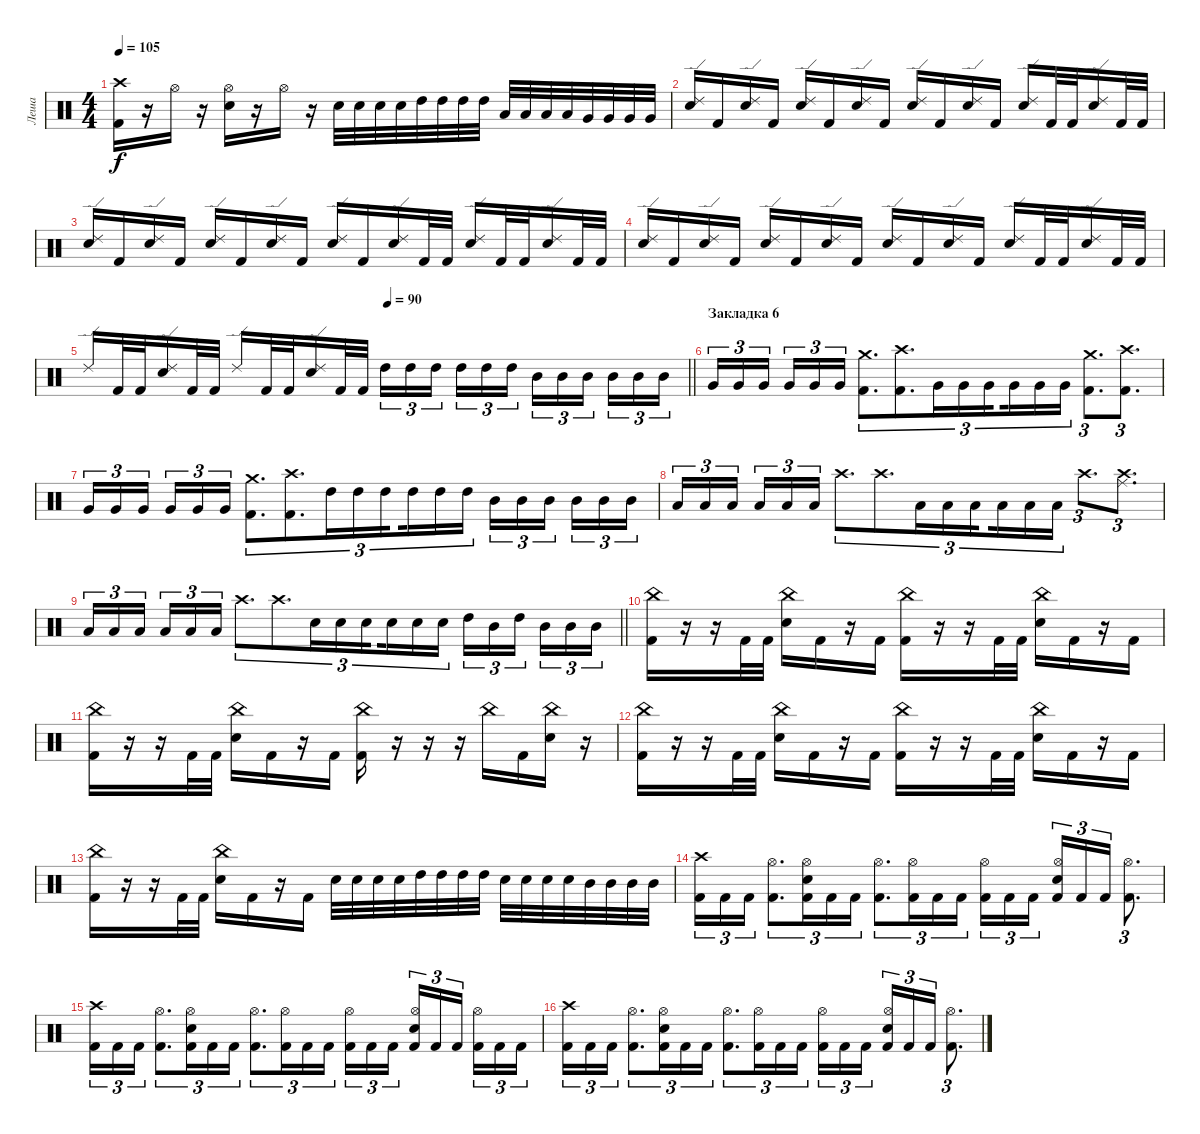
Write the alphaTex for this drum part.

\track ("Леша" "Леша") {instrument percussion}
\staff {score}
\articulation defaults
\ts (4 4)
\tempo 105
\clef neutral
\ks c
("Crash high (hit)" "Kick (hit) 2").16{dy f} r.16 "Hi-Hat (open)".16 r.16 ("Hi-Hat (open)" "Electric Snare (hit)").16 r.16 "Hi-Hat (open)".16 r.16 "Electric Snare (hit)".32 "Electric Snare (hit)".32 "Electric Snare (hit)".32 "Electric Snare (hit)".32 "High Tom (hit)".32 "High Tom (hit)".32 "High Tom (hit)".32 "High Tom (hit)".32 "Low Tom (hit)".32 "Low Tom (hit)".32 "Low Tom (hit)".32 "Low Tom (hit)".32 "Very Low Tom (hit)".32 "Very Low Tom (hit)".32 "Very Low Tom (hit)".32 "Very Low Tom (hit)".32 |
("Ride (edge) 2" "Electric Snare (hit)").16 "Kick (hit) 2".16 ("Ride (edge) 2" "Electric Snare (hit)").16 "Kick (hit) 2".16 ("Ride (edge) 2" "Electric Snare (hit)").16 "Kick (hit) 2".16 ("Ride (edge) 2" "Electric Snare (hit)").16 "Kick (hit) 2".16 ("Ride (edge) 2" "Electric Snare (hit)").16 "Kick (hit) 2".16 ("Ride (edge) 2" "Electric Snare (hit)").16 "Kick (hit) 2".16 ("Ride (edge) 2" "Electric Snare (hit)").16 "Kick (hit) 2".32 "Kick (hit) 2".32 ("Ride (edge) 2" "Electric Snare (hit)").16 "Kick (hit) 2".32 "Kick (hit) 2".32 |
("Ride (edge) 2" "Electric Snare (hit)").16 "Kick (hit) 2".16 ("Ride (edge) 2" "Electric Snare (hit)").16 "Kick (hit) 2".16 ("Ride (edge) 2" "Electric Snare (hit)").16 "Kick (hit) 2".16 ("Ride (edge) 2" "Electric Snare (hit)").16 "Kick (hit) 2".16 ("Ride (edge) 2" "Electric Snare (hit)").16 "Kick (hit) 2".16 ("Ride (edge) 2" "Electric Snare (hit)").16 "Kick (hit) 2".32 "Kick (hit) 2".32 ("Ride (edge) 2" "Electric Snare (hit)").16 "Kick (hit) 2".32 "Kick (hit) 2".32 ("Ride (edge) 2" "Electric Snare (hit)").16 "Kick (hit) 2".32 "Kick (hit) 2".32 |
("Ride (edge) 2" "Electric Snare (hit)").16 "Kick (hit) 2".16 ("Ride (edge) 2" "Electric Snare (hit)").16 "Kick (hit) 2".16 ("Ride (edge) 2" "Electric Snare (hit)").16 "Kick (hit) 2".16 ("Ride (edge) 2" "Electric Snare (hit)").16 "Kick (hit) 2".16 ("Ride (edge) 2" "Electric Snare (hit)").16 "Kick (hit) 2".16 ("Ride (edge) 2" "Electric Snare (hit)").16 "Kick (hit) 2".16 ("Ride (edge) 2" "Electric Snare (hit)").16 "Kick (hit) 2".32 "Kick (hit) 2".32 ("Ride (edge) 2" "Electric Snare (hit)").16 "Kick (hit) 2".32 "Kick (hit) 2".32 |
\tempo (90 0.5)
\barLineRight lightlight "Ride (edge) 2".16 "Kick (hit) 2".32 "Kick (hit) 2".32
("Ride (edge) 2" "Electric Snare (hit)").16 "Kick (hit) 2".32 "Kick (hit) 2".32 "Ride (edge) 2".16 "Kick (hit) 2".32 "Kick (hit) 2".32 ("Ride (edge) 2" "Electric Snare (hit)").16 "Kick (hit) 2".32 "Kick (hit) 2".32 "High Tom (hit)".16{tu (3 2)} "High Tom (hit)".16{tu (3 2)} "High Tom (hit)".16{tu (3 2) beam splitsecondary} "High Tom (hit)".16{tu (3 2)} "High Tom (hit)".16{tu (3 2)} "High Tom (hit)".16{tu (3 2)} "Mid Tom (hit)".16{tu (3 2)} "Mid Tom (hit)".16{tu (3 2)} "Mid Tom (hit)".16{tu (3 2) beam splitsecondary} "Mid Tom (hit)".16{tu (3 2)} "Mid Tom (hit)".16{tu (3 2)} "Mid Tom (hit)".16{tu (3 2)} |
\section ("" "Закладка 6")
"Very Low Tom (hit)".16{tu (3 2)} "Very Low Tom (hit)".16{tu (3 2)} "Very Low Tom (hit)".16{tu (3 2) beam splitsecondary} "Very Low Tom (hit)".16{tu (3 2)} "Very Low Tom (hit)".16{tu (3 2)} "Very Low Tom (hit)".16{tu (3 2)} ("Crash medium (hit)" "Kick (hit) 2").8{d tu (3 2)} ("Crash high (hit)" "Kick (hit) 2").8{d tu (3 2)} "Very Low Tom (hit)".16{tu (3 2)} "Very Low Tom (hit)".16{tu (3 2)} "Very Low Tom (hit)".16{tu (3 2) beam splitsecondary} "Very Low Tom (hit)".16{tu (3 2)} "Very Low Tom (hit)".16{tu (3 2)} "Very Low Tom (hit)".16{tu (3 2)} ("Crash medium (hit)" "Kick (hit) 2").8{d tu (3 2)} ("Crash high (hit)" "Kick (hit) 2").8{d tu (3 2)} |
"Very Low Tom (hit)".16{tu (3 2)} "Very Low Tom (hit)".16{tu (3 2)} "Very Low Tom (hit)".16{tu (3 2) beam splitsecondary} "Very Low Tom (hit)".16{tu (3 2)} "Very Low Tom (hit)".16{tu (3 2)} "Very Low Tom (hit)".16{tu (3 2)} ("Crash medium (hit)" "Kick (hit) 2").8{d tu (3 2)} ("Crash high (hit)" "Kick (hit) 2").8{d tu (3 2)} "High Tom (hit)".16{tu (3 2)} "High Tom (hit)".16{tu (3 2)} "High Tom (hit)".16{tu (3 2) beam splitsecondary} "High Tom (hit)".16{tu (3 2)} "High Tom (hit)".16{tu (3 2)} "High Tom (hit)".16{tu (3 2)} "Mid Tom (hit)".16{tu (3 2)} "Mid Tom (hit)".16{tu (3 2)} "Mid Tom (hit)".16{tu (3 2) beam splitsecondary} "Mid Tom (hit)".16{tu (3 2)} "Mid Tom (hit)".16{tu (3 2)} "Mid Tom (hit)".16{tu (3 2)} |
"Low Tom (hit)".16{tu (3 2)} "Low Tom (hit)".16{tu (3 2)} "Low Tom (hit)".16{tu (3 2) beam splitsecondary} "Low Tom (hit)".16{tu (3 2)} "Low Tom (hit)".16{tu (3 2)} "Low Tom (hit)".16{tu (3 2)} "Crash high (hit)".8{d tu (3 2)} "Crash high (hit)".8{d tu (3 2)} "Low Tom (hit)".16{tu (3 2)} "Low Tom (hit)".16{tu (3 2)} "Low Tom (hit)".16{tu (3 2) beam splitsecondary} "Low Tom (hit)".16{tu (3 2)} "Low Tom (hit)".16{tu (3 2)} "Low Tom (hit)".16{tu (3 2)} "Crash high (hit)".8{d tu (3 2)} ("Ride (middle)" "Crash high (hit)").8{d tu (3 2)} |
\barLineRight lightlight "Low Tom (hit)".16{tu (3 2)} "Low Tom (hit)".16{tu (3 2)} "Low Tom (hit)".16{tu (3 2) beam splitsecondary} "Low Tom (hit)".16{tu (3 2)} "Low Tom (hit)".16{tu (3 2)} "Low Tom (hit)".16{tu (3 2)} "Crash high (hit)".8{d tu (3 2)} "Crash high (hit)".8{d tu (3 2)} "Electric Snare (hit)".16{tu (3 2)} "Electric Snare (hit)".16{tu (3 2)} "Electric Snare (hit)".16{tu (3 2) beam splitsecondary} "Electric Snare (hit)".16{tu (3 2)} "Electric Snare (hit)".16{tu (3 2)} "Electric Snare (hit)".16{tu (3 2)} "High Tom (hit)".16{tu (3 2)} "Mid Tom (hit)".16{tu (3 2)} "High Tom (hit)".16{tu (3 2) beam splitsecondary} "Mid Tom (hit)".16{tu (3 2)} "Mid Tom (hit)".16{tu (3 2)} "Mid Tom (hit)".16{tu (3 2)}
|
\section ("" "")
("China (hit)" "Kick (hit) 2").16 r.16 r.16 "Kick (hit) 2".32 "Kick (hit) 2".32 ("China (hit)" "Electric Snare (hit)").16 "Kick (hit) 2".16 r.16 "Kick (hit) 2".16 ("China (hit)" "Kick (hit) 2").16 r.16 r.16 "Kick (hit) 2".32 "Kick (hit) 2".32 ("China (hit)" "Electric Snare (hit)").16 "Kick (hit) 2".16 r.16 "Kick (hit) 2".16 |
("China (hit)" "Kick (hit) 2").16 r.16 r.16 "Kick (hit) 2".32 "Kick (hit) 2".32 ("China (hit)" "Electric Snare (hit)").16 "Kick (hit) 2".16 r.16 "Kick (hit) 2".16 ("China (hit)" "Kick (hit) 2").16 r.16 r.16 r.16 "China (hit)".16 "Kick (hit) 2".16 ("China (hit)" "Electric Snare (hit)").16 r.16 |
("China (hit)" "Kick (hit) 2").16 r.16 r.16 "Kick (hit) 2".32 "Kick (hit) 2".32 ("China (hit)" "Electric Snare (hit)").16 "Kick (hit) 2".16 r.16 "Kick (hit) 2".16 ("China (hit)" "Kick (hit) 2").16 r.16 r.16 "Kick (hit) 2".32 "Kick (hit) 2".32 ("China (hit)" "Electric Snare (hit)").16 "Kick (hit) 2".16 r.16 "Kick (hit) 2".16 |
("China (hit)" "Kick (hit) 2").16 r.16 r.16 "Kick (hit) 2".32 "Kick (hit) 2".32 ("China (hit)" "Electric Snare (hit)").16 "Kick (hit) 2".16 r.16 "Kick (hit) 2".16 "Electric Snare (hit)".32 "Electric Snare (hit)".32 "Electric Snare (hit)".32 "Electric Snare (hit)".32 "High Tom (hit)".32 "High Tom (hit)".32 "High Tom (hit)".32 "High Tom (hit)".32 "Electric Snare (hit)".32 "Electric Snare (hit)".32 "Electric Snare (hit)".32 "Electric Snare (hit)".32 "Mid Tom (hit)".32 "Mid Tom (hit)".32 "Mid Tom (hit)".32 "Mid Tom (hit)".32 |
("Crash high (hit)" "Kick (hit) 2").16{tu (3 2)} "Kick (hit) 2".16{tu (3 2)} "Kick (hit) 2".16{tu (3 2)} ("Hi-Hat (open)" "Kick (hit) 2").8{d tu (3 2)} ("Hi-Hat (open)" "Electric Snare (hit)" "Kick (hit) 2").16{tu (3 2)} "Kick (hit) 2".16{tu (3 2)} "Kick (hit) 2".16{tu (3 2)} ("Hi-Hat (open)" "Kick (hit) 2").8{d tu (3 2)} ("Hi-Hat (open)" "Kick (hit) 2").16{tu (3 2)} "Kick (hit) 2".16{tu (3 2)} "Kick (hit) 2".16{tu (3 2) beam splitsecondary} ("Hi-Hat (open)" "Kick (hit) 2").16{tu (3 2)} "Kick (hit) 2".16{tu (3 2)} "Kick (hit) 2".16{tu (3 2)} ("Hi-Hat (open)" "Electric Snare (hit)" "Kick (hit) 2").16{tu (3 2)} "Kick (hit) 2".16{tu (3 2)} "Kick (hit) 2".16{tu (3 2)} ("Hi-Hat (open)" "Kick (hit) 2").8{d tu (3 2)} |
("Crash high (hit)" "Kick (hit) 2").16{tu (3 2)} "Kick (hit) 2".16{tu (3 2)} "Kick (hit) 2".16{tu (3 2)} ("Hi-Hat (open)" "Kick (hit) 2").8{d tu (3 2)} ("Hi-Hat (open)" "Electric Snare (hit)" "Kick (hit) 2").16{tu (3 2)} "Kick (hit) 2".16{tu (3 2)} "Kick (hit) 2".16{tu (3 2)} ("Hi-Hat (open)" "Kick (hit) 2").8{d tu (3 2)} ("Hi-Hat (open)" "Kick (hit) 2").16{tu (3 2)} "Kick (hit) 2".16{tu (3 2)} "Kick (hit) 2".16{tu (3 2) beam splitsecondary} ("Hi-Hat (open)" "Kick (hit) 2").16{tu (3 2)} "Kick (hit) 2".16{tu (3 2)} "Kick (hit) 2".16{tu (3 2)} ("Hi-Hat (open)" "Electric Snare (hit)" "Kick (hit) 2").16{tu (3 2)} "Kick (hit) 2".16{tu (3 2)} "Kick (hit) 2".16{tu (3 2) beam splitsecondary} ("Hi-Hat (open)" "Kick (hit) 2").16{tu (3 2)} "Kick (hit) 2".16{tu (3 2)} "Kick (hit) 2".16{tu (3 2)} |
("Crash high (hit)" "Kick (hit) 2").16{tu (3 2)} "Kick (hit) 2".16{tu (3 2)} "Kick (hit) 2".16{tu (3 2)} ("Hi-Hat (open)" "Kick (hit) 2").8{d tu (3 2)} ("Hi-Hat (open)" "Electric Snare (hit)" "Kick (hit) 2").16{tu (3 2)} "Kick (hit) 2".16{tu (3 2)} "Kick (hit) 2".16{tu (3 2)} ("Hi-Hat (open)" "Kick (hit) 2").8{d tu (3 2)} ("Hi-Hat (open)" "Kick (hit) 2").16{tu (3 2)} "Kick (hit) 2".16{tu (3 2)} "Kick (hit) 2".16{tu (3 2) beam splitsecondary} ("Hi-Hat (open)" "Kick (hit) 2").16{tu (3 2)} "Kick (hit) 2".16{tu (3 2)} "Kick (hit) 2".16{tu (3 2)} ("Hi-Hat (open)" "Electric Snare (hit)" "Kick (hit) 2").16{tu (3 2)} "Kick (hit) 2".16{tu (3 2)} "Kick (hit) 2".16{tu (3 2)} ("Hi-Hat (open)" "Kick (hit) 2").8{d tu (3 2)}
